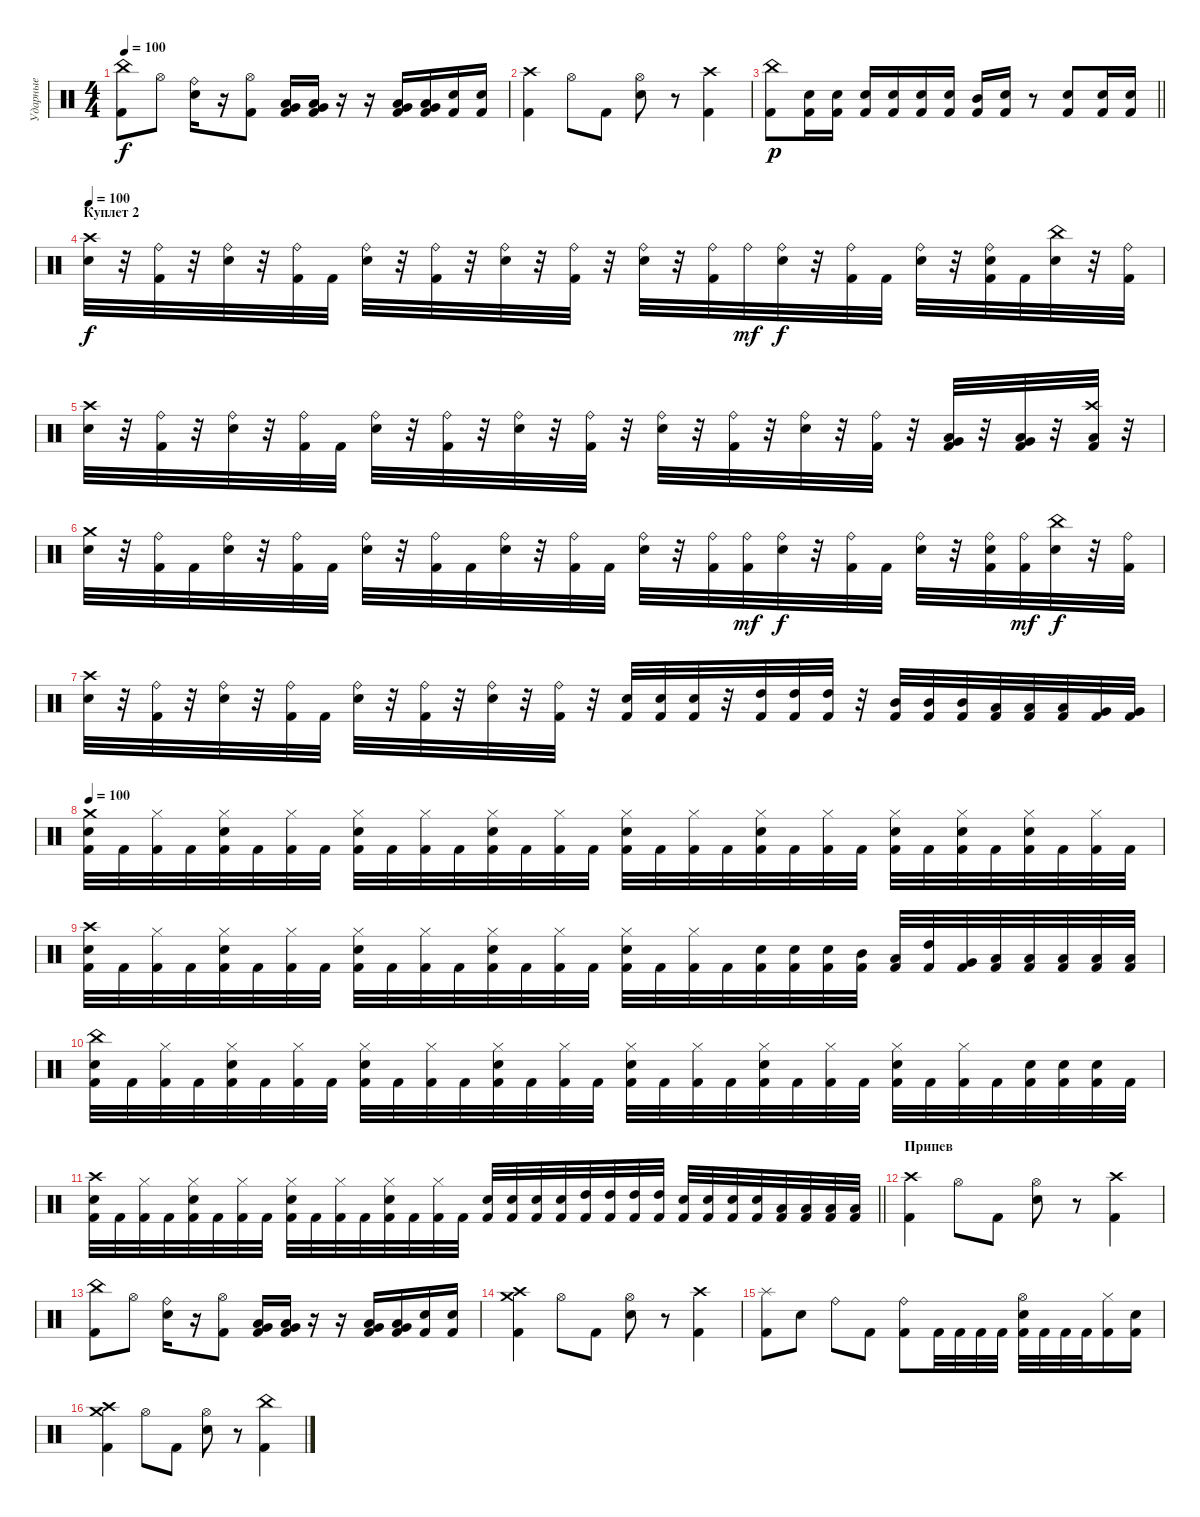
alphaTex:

\track ("Ударные" "Ударные") {instrument percussion}
\staff {score}
\articulation defaults
\ts (4 4)
\tempo 100
\clef neutral
\ks c
("China (hit)" "Kick (hit) 2").8{dy f} "Hi-Hat (open)".8 ("Ride (bell)" "Snare (hit) 2").16 r.16 ("Hi-Hat (open)" "Kick (hit) 2").8 ("Low Tom (hit)" "Very Low Tom (hit)" "Kick (hit) 2").16 ("Low Tom (hit)" "Very Low Tom (hit)" "Kick (hit) 2").16 r.16 r.16 ("Low Tom (hit)" "Very Low Tom (hit)" "Kick (hit) 2").16 ("Low Tom (hit)" "Very Low Tom (hit)" "Kick (hit) 2").16 ("Snare (hit) 2" "Kick (hit) 2").16 ("Snare (hit) 2" "Kick (hit) 2").16 |
("Crash high (hit)" "Kick (hit) 2").4 "Hi-Hat (open)".8 "Kick (hit) 2".8 ("Hi-Hat (open)" "Snare (hit) 2").8 r.8 ("Crash high (hit)" "Kick (hit) 2").4 |
\barLineRight lightlight
("China (hit)" "Kick (hit) 2").8{dy p} ("Snare (hit) 2" "Kick (hit) 2").16 ("Snare (hit) 2" "Kick (hit) 2").16 ("Snare (hit) 2" "Kick (hit) 2").16 ("Snare (hit) 2" "Kick (hit) 2").16 ("Snare (hit) 2" "Kick (hit) 2").16 ("Snare (hit) 2" "Kick (hit) 2").16 ("Mid Tom (hit)" "Kick (hit) 2").16 ("Snare (hit) 2" "Kick (hit) 2").16 r.8 ("Snare (hit) 2" "Kick (hit) 2").8 ("Snare (hit) 2" "Kick (hit) 2").16 ("Snare (hit) 2" "Kick (hit) 2").16 |
\section ("" "Куплет 2")
\tempo 100
("Crash high (hit)" "Snare (hit) 2").32{dy f} r.32 ("Ride (bell)" "Kick (hit) 2").32 r.32 ("Ride (bell)" "Snare (hit) 2").32 r.32 ("Ride (bell)" "Kick (hit) 2").32 "Kick (hit) 2".32 ("Ride (bell)" "Snare (hit) 2").32 r.32 ("Ride (bell)" "Kick (hit) 2").32 r.32 ("Ride (bell)" "Snare (hit) 2").32 r.32 ("Ride (bell)" "Kick (hit) 2").32 r.32 ("Ride (bell)" "Snare (hit) 2").32 r.32 ("Ride (bell)" "Kick (hit) 2").32 "Ride (bell)".32{dy mf} ("Ride (bell)" "Snare (hit) 2").32{dy f} r.32 ("Ride (bell)" "Kick (hit) 2").32 "Kick (hit) 2".32 ("Ride (bell)" "Snare (hit) 2").32 r.32 ("Ride (bell)" "Snare (hit) 2" "Kick (hit) 2").32 "Kick (hit) 2".32 ("China (hit)" "Snare (hit) 2").32 r.32 ("Ride (bell)" "Kick (hit) 2").32 |
("Crash high (hit)" "Snare (hit) 2").32 r.32 ("Ride (bell)" "Kick (hit) 2").32 r.32 ("Ride (bell)" "Snare (hit) 2").32 r.32 ("Ride (bell)" "Kick (hit) 2").32 "Kick (hit) 2".32 ("Ride (bell)" "Snare (hit) 2").32 r.32 ("Ride (bell)" "Kick (hit) 2").32 r.32 ("Ride (bell)" "Snare (hit) 2").32 r.32 ("Ride (bell)" "Kick (hit) 2").32 r.32 ("Ride (bell)" "Snare (hit) 2").32 r.32 ("Ride (bell)" "Kick (hit) 2").32 r.32 ("Ride (bell)" "Snare (hit) 2").32 r.32 ("Ride (bell)" "Kick (hit) 2").32 r.32 ("Low Tom (hit)" "Very Low Tom (hit)" "Kick (hit) 2").32 r.32 ("Low Tom (hit)" "Very Low Tom (hit)" "Kick (hit) 2").32 r.32 ("Crash high (hit)" "Low Floor Tom (hit)" "Kick (hit) 2").32 r.32 |
("Crash medium (hit)" "Snare (hit) 2").32 r.32 ("Ride (bell)" "Kick (hit) 2").32 "Kick (hit) 2".32 ("Ride (bell)" "Snare (hit) 2").32 r.32 ("Ride (bell)" "Kick (hit) 2").32 "Kick (hit) 2".32 ("Ride (bell)" "Snare (hit) 2").32 r.32 ("Ride (bell)" "Kick (hit) 2").32 "Kick (hit) 2".32 ("Ride (bell)" "Snare (hit) 2").32 r.32 ("Ride (bell)" "Kick (hit) 2").32 "Kick (hit) 2".32 ("Ride (bell)" "Snare (hit) 2").32 r.32 ("Ride (bell)" "Kick (hit) 2").32 ("Ride (bell)" "Kick (hit) 2").32{dy mf} ("Ride (bell)" "Snare (hit) 2").32{dy f} r.32 ("Ride (bell)" "Kick (hit) 2").32 "Kick (hit) 2".32 ("Ride (bell)" "Snare (hit) 2").32 r.32 ("Ride (bell)" "Snare (hit) 2" "Kick (hit) 2").32 ("Ride (bell)" "Kick (hit) 2").32{dy mf} ("China (hit)" "Snare (hit) 2").32{dy f} r.32 ("Ride (bell)" "Kick (hit) 2").32 |
("Crash high (hit)" "Snare (hit) 2").32 r.32 ("Ride (bell)" "Kick (hit) 2").32 r.32 ("Ride (bell)" "Snare (hit) 2").32 r.32 ("Ride (bell)" "Kick (hit) 2").32 "Kick (hit) 2".32 ("Ride (bell)" "Snare (hit) 2").32 r.32 ("Ride (bell)" "Kick (hit) 2").32 r.32 ("Ride (bell)" "Snare (hit) 2").32 r.32 ("Ride (bell)" "Kick (hit) 2").32 r.32 ("Snare (hit) 2" "Kick (hit) 2").32 ("Snare (hit) 2" "Kick (hit) 2").32 ("Snare (hit) 2" "Kick (hit) 2").32 r.32 ("High Tom (hit)" "Kick (hit) 2").32 ("High Tom (hit)" "Kick (hit) 2").32 ("High Tom (hit)" "Kick (hit) 2").32 r.32 ("Mid Tom (hit)" "Kick (hit) 2").32 ("Mid Tom (hit)" "Kick (hit) 2").32 ("Mid Tom (hit)" "Kick (hit) 2").32 ("Low Tom (hit)" "Kick (hit) 2").32 ("Low Tom (hit)" "Kick (hit) 2").32 ("Low Tom (hit)" "Kick (hit) 2").32 ("Very Low Tom (hit)" "Kick (hit) 2").32 ("Very Low Tom (hit)" "Kick (hit) 2").32 |
\tempo 100
("Crash medium (hit)" "Snare (hit) 2" "Kick (hit) 2").32 "Kick (hit) 2".32 ("Hi-Hat (closed)" "Kick (hit) 2").32 "Kick (hit) 2".32 ("Hi-Hat (closed)" "Snare (hit) 2" "Kick (hit) 2").32 "Kick (hit) 2".32 ("Hi-Hat (closed)" "Kick (hit) 2").32 "Kick (hit) 2".32 ("Hi-Hat (closed)" "Snare (hit) 2" "Kick (hit) 2").32 "Kick (hit) 2".32 ("Hi-Hat (closed)" "Kick (hit) 2").32 "Kick (hit) 2".32 ("Hi-Hat (closed)" "Snare (hit) 2" "Kick (hit) 2").32 "Kick (hit) 2".32 ("Hi-Hat (closed)" "Kick (hit) 2").32 "Kick (hit) 2".32 ("Hi-Hat (closed)" "Snare (hit) 2" "Kick (hit) 2").32 "Kick (hit) 2".32 ("Hi-Hat (closed)" "Kick (hit) 2").32 "Kick (hit) 2".32 ("Hi-Hat (closed)" "Snare (hit) 2" "Kick (hit) 2").32 "Kick (hit) 2".32 ("Hi-Hat (closed)" "Kick (hit) 2").32 "Kick (hit) 2".32 ("Hi-Hat (closed)" "Snare (hit) 2" "Kick (hit) 2").32 "Kick (hit) 2".32 ("Hi-Hat (closed)" "Snare (hit) 2" "Kick (hit) 2").32 "Kick (hit) 2".32 ("Hi-Hat (closed)" "Snare (hit) 2" "Kick (hit) 2").32 "Kick (hit) 2".32 ("Hi-Hat (closed)" "Kick (hit) 2").32 "Kick (hit) 2".32 |
("Crash high (hit)" "Snare (hit) 2" "Kick (hit) 2").32 "Kick (hit) 2".32 ("Hi-Hat (closed)" "Kick (hit) 2").32 "Kick (hit) 2".32 ("Hi-Hat (closed)" "Snare (hit) 2" "Kick (hit) 2").32 "Kick (hit) 2".32 ("Hi-Hat (closed)" "Kick (hit) 2").32 "Kick (hit) 2".32 ("Hi-Hat (closed)" "Snare (hit) 2" "Kick (hit) 2").32 "Kick (hit) 2".32 ("Hi-Hat (closed)" "Kick (hit) 2").32 "Kick (hit) 2".32 ("Hi-Hat (closed)" "Snare (hit) 2" "Kick (hit) 2").32 "Kick (hit) 2".32 ("Hi-Hat (closed)" "Kick (hit) 2").32 "Kick (hit) 2".32 ("Hi-Hat (closed)" "Snare (hit) 2" "Kick (hit) 2").32 "Kick (hit) 2".32 ("Hi-Hat (closed)" "Kick (hit) 2").32 "Kick (hit) 2".32 ("Snare (hit) 2" "Kick (hit) 2").32 ("Snare (hit) 2" "Kick (hit) 2").32 ("Snare (hit) 2" "Kick (hit) 2").32 ("Mid Tom (hit)" "Kick (hit) 2").32 ("Low Tom (hit)" "Kick (hit) 2").32 ("High Tom (hit)" "Kick (hit) 2").32 ("Very Low Tom (hit)" "Kick (hit) 2").32 ("Low Floor Tom (hit)" "Kick (hit) 2").32 ("Low Tom (hit)" "Kick (hit) 2").32 ("Low Tom (hit)" "Kick (hit) 2").32 ("Low Tom (hit)" "Kick (hit) 2").32 ("Low Tom (hit)" "Kick (hit) 2").32 |
("China (hit)" "Snare (hit) 2" "Kick (hit) 2").32 "Kick (hit) 2".32 ("Hi-Hat (closed)" "Kick (hit) 2").32 "Kick (hit) 2".32 ("Hi-Hat (closed)" "Snare (hit) 2" "Kick (hit) 2").32 "Kick (hit) 2".32 ("Hi-Hat (closed)" "Kick (hit) 2").32 "Kick (hit) 2".32 ("Hi-Hat (closed)" "Snare (hit) 2" "Kick (hit) 2").32 "Kick (hit) 2".32 ("Hi-Hat (closed)" "Kick (hit) 2").32 "Kick (hit) 2".32 ("Hi-Hat (closed)" "Snare (hit) 2" "Kick (hit) 2").32 "Kick (hit) 2".32 ("Hi-Hat (closed)" "Kick (hit) 2").32 "Kick (hit) 2".32 ("Hi-Hat (closed)" "Snare (hit) 2" "Kick (hit) 2").32 "Kick (hit) 2".32 ("Hi-Hat (closed)" "Kick (hit) 2").32 "Kick (hit) 2".32 ("Hi-Hat (closed)" "Snare (hit) 2" "Kick (hit) 2").32 "Kick (hit) 2".32 ("Hi-Hat (closed)" "Kick (hit) 2").32 "Kick (hit) 2".32 ("Hi-Hat (closed)" "Snare (hit) 2" "Kick (hit) 2").32 "Kick (hit) 2".32 ("Hi-Hat (closed)" "Kick (hit) 2").32 "Kick (hit) 2".32 ("Snare (hit) 2" "Kick (hit) 2").32 ("Snare (hit) 2" "Kick (hit) 2").32 ("Snare (hit) 2" "Kick (hit) 2").32 "Kick (hit) 2".32 |
\barLineRight lightlight
("Crash high (hit)" "Snare (hit) 2" "Kick (hit) 2").32 "Kick (hit) 2".32 ("Hi-Hat (closed)" "Kick (hit) 2").32 "Kick (hit) 2".32 ("Hi-Hat (closed)" "Snare (hit) 2" "Kick (hit) 2").32 "Kick (hit) 2".32 ("Hi-Hat (closed)" "Kick (hit) 2").32 "Kick (hit) 2".32 ("Hi-Hat (closed)" "Snare (hit) 2" "Kick (hit) 2").32 "Kick (hit) 2".32 ("Hi-Hat (closed)" "Kick (hit) 2").32 "Kick (hit) 2".32 ("Hi-Hat (closed)" "Snare (hit) 2" "Kick (hit) 2").32 "Kick (hit) 2".32 ("Hi-Hat (closed)" "Kick (hit) 2").32 "Kick (hit) 2".32 ("Snare (hit) 2" "Kick (hit) 2").32 ("Snare (hit) 2" "Kick (hit) 2").32 ("Snare (hit) 2" "Kick (hit) 2").32 ("Snare (hit) 2" "Kick (hit) 2").32 ("High Tom (hit)" "Kick (hit) 2").32 ("High Tom (hit)" "Kick (hit) 2").32 ("High Tom (hit)" "Kick (hit) 2").32 ("High Tom (hit)" "Kick (hit) 2").32 ("Snare (hit) 2" "Kick (hit) 2").32 ("Snare (hit) 2" "Kick (hit) 2").32 ("Snare (hit) 2" "Kick (hit) 2").32 ("Snare (hit) 2" "Kick (hit) 2").32 ("Low Tom (hit)" "Kick (hit) 2").32 ("Low Tom (hit)" "Kick (hit) 2").32 ("Low Floor Tom (hit)" "Kick (hit) 2").32 ("Low Floor Tom (hit)" "Kick (hit) 2").32 |
\section ("" "Припев")
("Crash high (hit)" "Kick (hit) 2").4 "Hi-Hat (open)".8 "Kick (hit) 2".8 ("Hi-Hat (open)" "Snare (hit) 2").8 r.8 ("Crash high (hit)" "Kick (hit) 2").4 |
("China (hit)" "Kick (hit) 2").8 "Hi-Hat (open)".8 ("Ride (bell)" "Snare (hit) 2").16 r.16 ("Hi-Hat (open)" "Kick (hit) 2").8 ("Low Tom (hit)" "Very Low Tom (hit)" "Kick (hit) 2").16 ("Low Tom (hit)" "Very Low Tom (hit)" "Kick (hit) 2").16 r.16 r.16 ("Low Tom (hit)" "Very Low Tom (hit)" "Kick (hit) 2").16 ("Low Tom (hit)" "Very Low Tom (hit)" "Kick (hit) 2").16 ("Snare (hit) 2" "Kick (hit) 2").16 ("Snare (hit) 2" "Kick (hit) 2").16 |
("Crash medium (hit)" "Crash high (hit)" "Kick (hit) 2").4 "Hi-Hat (open)".8 "Kick (hit) 2".8 ("Hi-Hat (open)" "Snare (hit) 2").8 r.8 ("Crash high (hit)" "Kick (hit) 2").4 |
("Splash (hit)" "Kick (hit) 2").8 "Snare (hit) 2".8 "Ride (bell)".8 "Kick (hit) 2".8 ("Ride (bell)" "Kick (hit) 2").8 "Kick (hit) 2".32 "Kick (hit) 2".32 "Kick (hit) 2".32 "Kick (hit) 2".32 ("Hi-Hat (open)" "Snare (hit) 2" "Kick (hit) 2").32 "Kick (hit) 2".32 "Kick (hit) 2".32 "Kick (hit) 2".32 ("Hi-Hat (closed)" "Kick (hit) 2").16 ("Snare (hit) 2" "Kick (hit) 2").16 |
("Crash medium (hit)" "Crash high (hit)" "Kick (hit) 2").4 "Hi-Hat (open)".8 "Kick (hit) 2".8 ("Hi-Hat (open)" "Snare (hit) 2").8 r.8 ("China (hit)" "Kick (hit) 2").4
